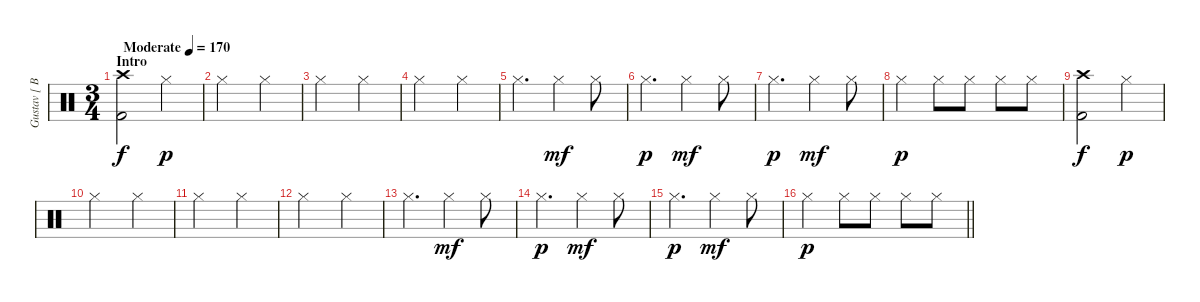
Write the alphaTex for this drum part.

\track ("Gustav [ Batterie ]" "Gustav [ B") {instrument percussion}
\staff {score}
\articulation defaults
\ts (3 4)
\section ("" "Intro")
\tempo (170 "Moderate")
\clef neutral
\ks c
("Crash high (hit)" "Kick (hit) 2").2{dy f} "Hi-Hat (closed)".4{dy p} |
"Hi-Hat (closed)".2 "Hi-Hat (closed)".4 |
"Hi-Hat (closed)".2 "Hi-Hat (closed)".4 |
"Hi-Hat (closed)".2 "Hi-Hat (closed)".4 |
"Hi-Hat (closed)".4{d} "Hi-Hat (closed)".4{dy mf} "Hi-Hat (closed)".8 |
"Hi-Hat (closed)".4{d dy p} "Hi-Hat (closed)".4{dy mf} "Hi-Hat (closed)".8 |
"Hi-Hat (closed)".4{d dy p} "Hi-Hat (closed)".4{dy mf} "Hi-Hat (closed)".8 |
"Hi-Hat (closed)".4{dy p} "Hi-Hat (closed)".8 "Hi-Hat (closed)".8 "Hi-Hat (closed)".8 "Hi-Hat (closed)".8 |
("Crash high (hit)" "Kick (hit) 2").2{dy f} "Hi-Hat (closed)".4{dy p} |
"Hi-Hat (closed)".2 "Hi-Hat (closed)".4 |
"Hi-Hat (closed)".2 "Hi-Hat (closed)".4 |
"Hi-Hat (closed)".2 "Hi-Hat (closed)".4 |
"Hi-Hat (closed)".4{d} "Hi-Hat (closed)".4{dy mf} "Hi-Hat (closed)".8 |
"Hi-Hat (closed)".4{d dy p} "Hi-Hat (closed)".4{dy mf} "Hi-Hat (closed)".8 |
"Hi-Hat (closed)".4{d dy p} "Hi-Hat (closed)".4{dy mf} "Hi-Hat (closed)".8 |
\barLineRight lightlight "Hi-Hat (closed)".4{dy p} "Hi-Hat (closed)".8 "Hi-Hat (closed)".8 "Hi-Hat (closed)".8 "Hi-Hat (closed)".8
